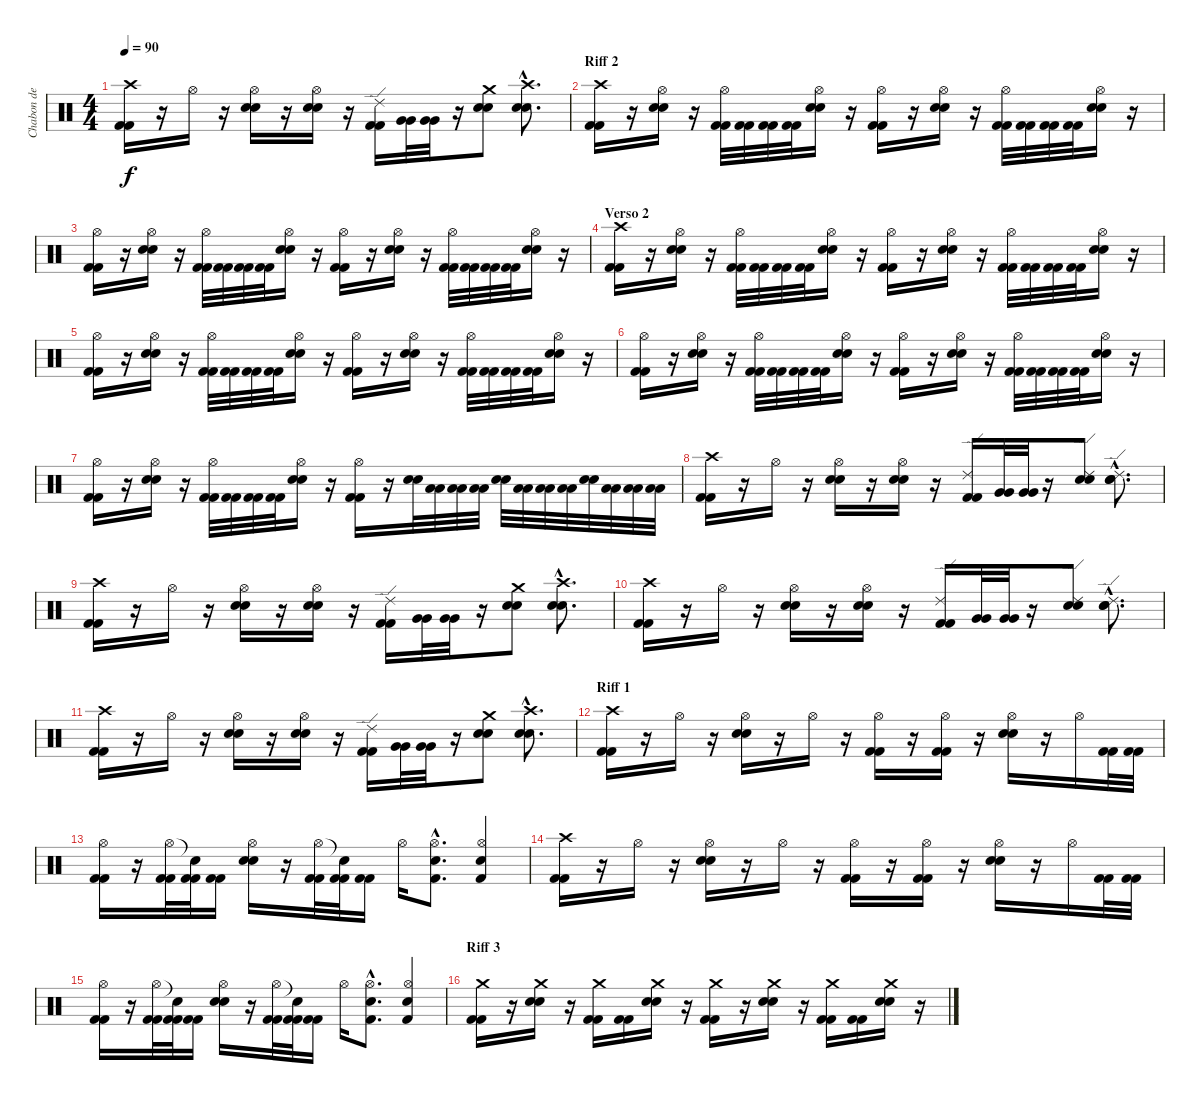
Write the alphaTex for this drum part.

\track ("Chabon de Vorax" "Chabon de ") {instrument percussion}
\staff {score}
\articulation defaults
\ts (4 4)
\tempo 90
\clef neutral
\ks c
("Crash high (hit)" "Kick (hit) 2" "Kick (hit) 2").16{dy f} r.16 "Hi-Hat (open)".16 r.16 ("Hi-Hat (open)" "Snare (hit) 2" "Snare (hit) 2").16 r.16 ("Hi-Hat (open)" "Snare (hit) 2" "Snare (hit) 2").16 r.16 ("Ride (edge) 2" "Kick (hit) 2" "Kick (hit) 2").16 ("Very Low Tom (hit)" "Very Low Tom (hit)").32 ("Very Low Tom (hit)" "Very Low Tom (hit)").32 r.16 ("Crash medium (hit)" "Snare (hit) 2" "Snare (hit) 2").8 ("Crash high (hit)"{hac} "Snare (hit) 2"{hac} "Snare (hit) 2"{hac}).8{d} |
\section ("" "Riff 2")
("Crash high (hit)" "Kick (hit) 2" "Kick (hit) 2").16 r.16 ("Hi-Hat (open)" "Snare (hit) 2" "Snare (hit) 2").16 r.16 ("Hi-Hat (open)" "Kick (hit) 2" "Kick (hit) 2").32 ("Kick (hit) 2" "Kick (hit) 2").32 ("Kick (hit) 2" "Kick (hit) 2").32 ("Kick (hit) 2" "Kick (hit) 2").32 ("Hi-Hat (open)" "Snare (hit) 2" "Snare (hit) 2").16 r.16 ("Hi-Hat (open)" "Kick (hit) 2" "Kick (hit) 2").16 r.16 ("Hi-Hat (open)" "Snare (hit) 2" "Snare (hit) 2").16 r.16 ("Hi-Hat (open)" "Kick (hit) 2" "Kick (hit) 2").32 ("Kick (hit) 2" "Kick (hit) 2").32 ("Kick (hit) 2" "Kick (hit) 2").32 ("Kick (hit) 2" "Kick (hit) 2").32 ("Hi-Hat (open)" "Snare (hit) 2" "Snare (hit) 2").16 r.16 |
("Hi-Hat (open)" "Kick (hit) 2" "Kick (hit) 2").16 r.16 ("Hi-Hat (open)" "Snare (hit) 2" "Snare (hit) 2").16 r.16 ("Hi-Hat (open)" "Kick (hit) 2" "Kick (hit) 2").32 ("Kick (hit) 2" "Kick (hit) 2").32 ("Kick (hit) 2" "Kick (hit) 2").32 ("Kick (hit) 2" "Kick (hit) 2").32 ("Hi-Hat (open)" "Snare (hit) 2" "Snare (hit) 2").16 r.16 ("Hi-Hat (open)" "Kick (hit) 2" "Kick (hit) 2").16 r.16 ("Hi-Hat (open)" "Snare (hit) 2" "Snare (hit) 2").16 r.16 ("Hi-Hat (open)" "Kick (hit) 2" "Kick (hit) 2").32 ("Kick (hit) 2" "Kick (hit) 2").32 ("Kick (hit) 2" "Kick (hit) 2").32 ("Kick (hit) 2" "Kick (hit) 2").32 ("Hi-Hat (open)" "Snare (hit) 2" "Snare (hit) 2").16 r.16 |
\section ("" "Verso 2")
("Crash high (hit)" "Kick (hit) 2" "Kick (hit) 2").16 r.16 ("Hi-Hat (open)" "Snare (hit) 2" "Snare (hit) 2").16 r.16 ("Hi-Hat (open)" "Kick (hit) 2" "Kick (hit) 2").32 ("Kick (hit) 2" "Kick (hit) 2").32 ("Kick (hit) 2" "Kick (hit) 2").32 ("Kick (hit) 2" "Kick (hit) 2").32 ("Hi-Hat (open)" "Snare (hit) 2" "Snare (hit) 2").16 r.16 ("Hi-Hat (open)" "Kick (hit) 2" "Kick (hit) 2").16 r.16 ("Hi-Hat (open)" "Snare (hit) 2" "Snare (hit) 2").16 r.16 ("Hi-Hat (open)" "Kick (hit) 2" "Kick (hit) 2").32 ("Kick (hit) 2" "Kick (hit) 2").32 ("Kick (hit) 2" "Kick (hit) 2").32 ("Kick (hit) 2" "Kick (hit) 2").32 ("Hi-Hat (open)" "Snare (hit) 2" "Snare (hit) 2").16 r.16 |
("Hi-Hat (open)" "Kick (hit) 2" "Kick (hit) 2").16 r.16 ("Hi-Hat (open)" "Snare (hit) 2" "Snare (hit) 2").16 r.16 ("Hi-Hat (open)" "Kick (hit) 2" "Kick (hit) 2").32 ("Kick (hit) 2" "Kick (hit) 2").32 ("Kick (hit) 2" "Kick (hit) 2").32 ("Kick (hit) 2" "Kick (hit) 2").32 ("Hi-Hat (open)" "Snare (hit) 2" "Snare (hit) 2").16 r.16 ("Hi-Hat (open)" "Kick (hit) 2" "Kick (hit) 2").16 r.16 ("Hi-Hat (open)" "Snare (hit) 2" "Snare (hit) 2").16 r.16 ("Hi-Hat (open)" "Kick (hit) 2" "Kick (hit) 2").32 ("Kick (hit) 2" "Kick (hit) 2").32 ("Kick (hit) 2" "Kick (hit) 2").32 ("Kick (hit) 2" "Kick (hit) 2").32 ("Hi-Hat (open)" "Snare (hit) 2" "Snare (hit) 2").16 r.16 |
("Hi-Hat (open)" "Kick (hit) 2" "Kick (hit) 2").16 r.16 ("Hi-Hat (open)" "Snare (hit) 2" "Snare (hit) 2").16 r.16 ("Hi-Hat (open)" "Kick (hit) 2" "Kick (hit) 2").32 ("Kick (hit) 2" "Kick (hit) 2").32 ("Kick (hit) 2" "Kick (hit) 2").32 ("Kick (hit) 2" "Kick (hit) 2").32 ("Hi-Hat (open)" "Snare (hit) 2" "Snare (hit) 2").16 r.16 ("Hi-Hat (open)" "Kick (hit) 2" "Kick (hit) 2").16 r.16 ("Hi-Hat (open)" "Snare (hit) 2" "Snare (hit) 2").16 r.16 ("Hi-Hat (open)" "Kick (hit) 2" "Kick (hit) 2").32 ("Kick (hit) 2" "Kick (hit) 2").32 ("Kick (hit) 2" "Kick (hit) 2").32 ("Kick (hit) 2" "Kick (hit) 2").32 ("Hi-Hat (open)" "Snare (hit) 2" "Snare (hit) 2").16 r.16 |
("Hi-Hat (open)" "Kick (hit) 2" "Kick (hit) 2").16 r.16 ("Hi-Hat (open)" "Snare (hit) 2" "Snare (hit) 2").16 r.16 ("Hi-Hat (open)" "Kick (hit) 2" "Kick (hit) 2").32 ("Kick (hit) 2" "Kick (hit) 2").32 ("Kick (hit) 2" "Kick (hit) 2").32 ("Kick (hit) 2" "Kick (hit) 2").32 ("Hi-Hat (open)" "Snare (hit) 2" "Snare (hit) 2").16 r.16 ("Hi-Hat (open)" "Kick (hit) 2" "Kick (hit) 2").16 r.16 ("Snare (hit) 2" "Snare (hit) 2").32 ("Low Floor Tom (hit)" "Low Floor Tom (hit)").32 ("Low Floor Tom (hit)" "Low Floor Tom (hit)").32 ("Low Floor Tom (hit)" "Low Floor Tom (hit)").32 ("Snare (hit) 2" "Snare (hit) 2").32 ("Low Floor Tom (hit)" "Low Floor Tom (hit)").32 ("Low Floor Tom (hit)" "Low Floor Tom (hit)").32 ("Low Floor Tom (hit)" "Low Floor Tom (hit)").32 ("Snare (hit) 2" "Snare (hit) 2").32 ("Low Floor Tom (hit)" "Low Floor Tom (hit)").32 ("Low Floor Tom (hit)" "Low Floor Tom (hit)").32 ("Low Floor Tom (hit)" "Low Floor Tom (hit)").32 |
("Crash high (hit)" "Kick (hit) 2" "Kick (hit) 2").16 r.16 "Hi-Hat (open)".16 r.16 ("Hi-Hat (open)" "Snare (hit) 2" "Snare (hit) 2").16 r.16 ("Hi-Hat (open)" "Snare (hit) 2" "Snare (hit) 2").16 r.16 ("Ride (edge) 2" "Kick (hit) 2" "Kick (hit) 2").16 ("Very Low Tom (hit)" "Very Low Tom (hit)").32 ("Very Low Tom (hit)" "Very Low Tom (hit)").32 r.16 ("Ride (edge) 2" "Snare (hit) 2" "Snare (hit) 2").8 ("Ride (edge) 2"{hac} "Snare (hit) 2"{hac} "Snare (hit) 2"{hac}).8{d} |
("Crash high (hit)" "Kick (hit) 2" "Kick (hit) 2").16 r.16 "Hi-Hat (open)".16 r.16 ("Hi-Hat (open)" "Snare (hit) 2" "Snare (hit) 2").16 r.16 ("Hi-Hat (open)" "Snare (hit) 2" "Snare (hit) 2").16 r.16 ("Ride (edge) 2" "Kick (hit) 2" "Kick (hit) 2").16 ("Very Low Tom (hit)" "Very Low Tom (hit)").32 ("Very Low Tom (hit)" "Very Low Tom (hit)").32 r.16 ("Crash medium (hit)" "Snare (hit) 2" "Snare (hit) 2").8 ("Crash high (hit)"{hac} "Snare (hit) 2"{hac} "Snare (hit) 2"{hac}).8{d} |
("Crash high (hit)" "Kick (hit) 2" "Kick (hit) 2").16 r.16 "Hi-Hat (open)".16 r.16 ("Hi-Hat (open)" "Snare (hit) 2" "Snare (hit) 2").16 r.16 ("Hi-Hat (open)" "Snare (hit) 2" "Snare (hit) 2").16 r.16 ("Ride (edge) 2" "Kick (hit) 2" "Kick (hit) 2").16 ("Very Low Tom (hit)" "Very Low Tom (hit)").32 ("Very Low Tom (hit)" "Very Low Tom (hit)").32 r.16 ("Ride (edge) 2" "Snare (hit) 2" "Snare (hit) 2").8 ("Ride (edge) 2"{hac} "Snare (hit) 2"{hac} "Snare (hit) 2"{hac}).8{d} |
("Crash high (hit)" "Kick (hit) 2" "Kick (hit) 2").16 r.16 "Hi-Hat (open)".16 r.16 ("Hi-Hat (open)" "Snare (hit) 2" "Snare (hit) 2").16 r.16 ("Hi-Hat (open)" "Snare (hit) 2" "Snare (hit) 2").16 r.16 ("Ride (edge) 2" "Kick (hit) 2" "Kick (hit) 2").16 ("Very Low Tom (hit)" "Very Low Tom (hit)").32 ("Very Low Tom (hit)" "Very Low Tom (hit)").32 r.16 ("Crash medium (hit)" "Snare (hit) 2" "Snare (hit) 2").8 ("Crash high (hit)"{hac} "Snare (hit) 2"{hac} "Snare (hit) 2"{hac}).8{d} |
\section ("" "Riff 1")
("Crash high (hit)" "Kick (hit) 2" "Kick (hit) 2").16 r.16 "Hi-Hat (open)".16 r.16 ("Hi-Hat (open)" "Snare (hit) 2" "Snare (hit) 2").16 r.16 "Hi-Hat (open)".16 r.16 ("Hi-Hat (open)" "Kick (hit) 2" "Kick (hit) 2").16 r.16 ("Hi-Hat (open)" "Kick (hit) 2" "Kick (hit) 2").16 r.16 ("Hi-Hat (open)" "Snare (hit) 2" "Snare (hit) 2").16 r.16 "Hi-Hat (open)".16 ("Kick (hit) 2" "Kick (hit) 2").32 ("Kick (hit) 2" "Kick (hit) 2").32 |
("Hi-Hat (open)" "Kick (hit) 2" "Kick (hit) 2").16 r.16 ("Hi-Hat (open)" "Kick (hit) 2" "Kick (hit) 2").32 ("Snare (hit)"{t} "Kick (hit) 2" "Kick (hit) 2").32 ("Kick (hit) 2" "Kick (hit) 2").16 ("Hi-Hat (open)" "Snare (hit) 2" "Snare (hit) 2").16 r.16 ("Hi-Hat (open)" "Kick (hit) 2" "Kick (hit) 2").32 ("Snare (hit)"{t} "Kick (hit) 2" "Kick (hit) 2").32 ("Kick (hit) 2" "Kick (hit) 2").16 "Hi-Hat (open)".16 ("Hi-Hat (open)"{hac} "Snare (hit) 2"{hac} "Kick (hit) 2"{hac}).8{d} ("Hi-Hat (open)" "Snare (hit) 2" "Kick (hit) 2").4 |
("Crash high (hit)" "Kick (hit) 2" "Kick (hit) 2").16 r.16 "Hi-Hat (open)".16 r.16 ("Hi-Hat (open)" "Snare (hit) 2" "Snare (hit) 2").16 r.16 "Hi-Hat (open)".16 r.16 ("Hi-Hat (open)" "Kick (hit) 2" "Kick (hit) 2").16 r.16 ("Hi-Hat (open)" "Kick (hit) 2" "Kick (hit) 2").16 r.16 ("Hi-Hat (open)" "Snare (hit) 2" "Snare (hit) 2").16 r.16 "Hi-Hat (open)".16 ("Kick (hit) 2" "Kick (hit) 2").32 ("Kick (hit) 2" "Kick (hit) 2").32 |
("Hi-Hat (open)" "Kick (hit) 2" "Kick (hit) 2").16 r.16 ("Hi-Hat (open)" "Kick (hit) 2" "Kick (hit) 2").32 ("Snare (hit)"{t} "Kick (hit) 2" "Kick (hit) 2").32 ("Kick (hit) 2" "Kick (hit) 2").16 ("Hi-Hat (open)" "Snare (hit) 2" "Snare (hit) 2").16 r.16 ("Hi-Hat (open)" "Kick (hit) 2" "Kick (hit) 2").32 ("Snare (hit)"{t} "Kick (hit) 2" "Kick (hit) 2").32 ("Kick (hit) 2" "Kick (hit) 2").16 "Hi-Hat (open)".16 ("Hi-Hat (open)"{hac} "Snare (hit) 2"{hac} "Kick (hit) 2"{hac}).8{d} ("Hi-Hat (open)" "Snare (hit) 2" "Kick (hit) 2").4 |
\section ("" "Riff 3")
("Crash medium (hit)" "Kick (hit) 2" "Kick (hit) 2").16 r.16 ("Crash medium (hit)" "Snare (hit) 2" "Snare (hit) 2").16 r.16 ("Crash medium (hit)" "Kick (hit) 2" "Kick (hit) 2").16 ("Kick (hit) 2" "Kick (hit) 2").16 ("Crash medium (hit)" "Snare (hit) 2" "Snare (hit) 2").16 r.16 ("Crash medium (hit)" "Kick (hit) 2" "Kick (hit) 2").16 r.16 ("Crash medium (hit)" "Snare (hit) 2" "Snare (hit) 2").16 r.16 ("Crash medium (hit)" "Kick (hit) 2" "Kick (hit) 2").16 ("Kick (hit) 2" "Kick (hit) 2").16 ("Crash medium (hit)" "Snare (hit) 2" "Snare (hit) 2").16 r.16
